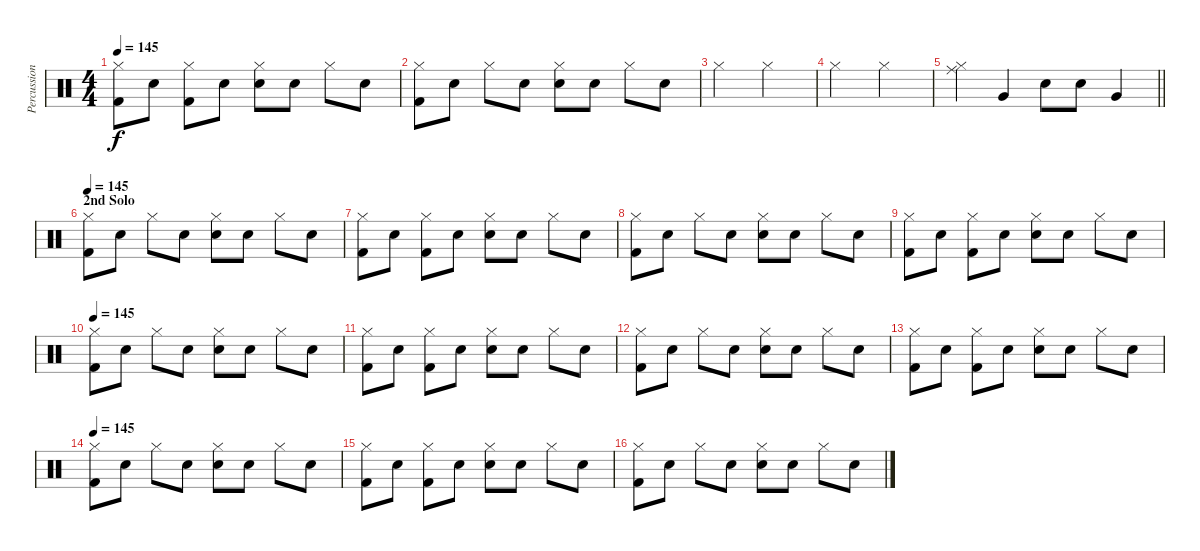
\track ("Percussion" "Percussion") {instrument percussion}
\staff {score}
\articulation defaults
\ts (4 4)
\tempo 145
\clef neutral
\ks c
("Hi-Hat (closed)" "Kick (hit) 2").8{dy f} "Snare (hit)"{x}.8 ("Hi-Hat (closed)" "Kick (hit) 2").8 "Snare (hit)"{x}.8 ("Hi-Hat (closed)" "Electric Snare (hit)").8 "Snare (hit)"{x}.8 "Hi-Hat (closed)".8 "Snare (hit)"{x}.8 |
("Hi-Hat (closed)" "Kick (hit) 2").8 "Snare (hit)"{x}.8 "Hi-Hat (closed)".8 "Snare (hit)"{x}.8 ("Hi-Hat (closed)" "Electric Snare (hit)").8 "Snare (hit)"{x}.8 "Hi-Hat (closed)".8 "Snare (hit)"{x}.8 |
"Hi-Hat (closed)".2 "Hi-Hat (closed)".2 |
"Hi-Hat (closed)".2 "Hi-Hat (closed)".2 |
\barLineRight lightlight
("Hi-Hat (closed)" "Ride (middle)").4 "Very Low Tom (hit)".4 "Electric Snare (hit)".8 "Electric Snare (hit)".8 "Very Low Tom (hit)".4 |
\section ("" "2nd Solo")
\tempo 145
("Hi-Hat (closed)" "Kick (hit) 2").8 "Snare (hit)"{x}.8 "Hi-Hat (closed)".8 "Snare (hit)"{x}.8 ("Hi-Hat (closed)" "Electric Snare (hit)").8 "Snare (hit)"{x}.8 "Hi-Hat (closed)".8 "Snare (hit)"{x}.8 |
("Hi-Hat (closed)" "Kick (hit) 2").8 "Snare (hit)"{x}.8 ("Hi-Hat (closed)" "Kick (hit) 2").8 "Snare (hit)"{x}.8 ("Hi-Hat (closed)" "Electric Snare (hit)").8 "Snare (hit)"{x}.8 "Hi-Hat (closed)".8 "Snare (hit)"{x}.8 |
("Hi-Hat (closed)" "Kick (hit) 2").8 "Snare (hit)"{x}.8 "Hi-Hat (closed)".8 "Snare (hit)"{x}.8 ("Hi-Hat (closed)" "Electric Snare (hit)").8 "Snare (hit)"{x}.8 "Hi-Hat (closed)".8 "Snare (hit)"{x}.8 |
("Hi-Hat (closed)" "Kick (hit) 2").8 "Snare (hit)"{x}.8 ("Hi-Hat (closed)" "Kick (hit) 2").8 "Snare (hit)"{x}.8 ("Hi-Hat (closed)" "Electric Snare (hit)").8 "Snare (hit)"{x}.8 "Hi-Hat (closed)".8 "Snare (hit)"{x}.8 |
\tempo 145
("Hi-Hat (closed)" "Kick (hit) 2").8 "Snare (hit)"{x}.8 "Hi-Hat (closed)".8 "Snare (hit)"{x}.8 ("Hi-Hat (closed)" "Electric Snare (hit)").8 "Snare (hit)"{x}.8 "Hi-Hat (closed)".8 "Snare (hit)"{x}.8 |
("Hi-Hat (closed)" "Kick (hit) 2").8 "Snare (hit)"{x}.8 ("Hi-Hat (closed)" "Kick (hit) 2").8 "Snare (hit)"{x}.8 ("Hi-Hat (closed)" "Electric Snare (hit)").8 "Snare (hit)"{x}.8 "Hi-Hat (closed)".8 "Snare (hit)"{x}.8 |
("Hi-Hat (closed)" "Kick (hit) 2").8 "Snare (hit)"{x}.8 "Hi-Hat (closed)".8 "Snare (hit)"{x}.8 ("Hi-Hat (closed)" "Electric Snare (hit)").8 "Snare (hit)"{x}.8 "Hi-Hat (closed)".8 "Snare (hit)"{x}.8 |
("Hi-Hat (closed)" "Kick (hit) 2").8 "Snare (hit)"{x}.8 ("Hi-Hat (closed)" "Kick (hit) 2").8 "Snare (hit)"{x}.8 ("Hi-Hat (closed)" "Electric Snare (hit)").8 "Snare (hit)"{x}.8 "Hi-Hat (closed)".8 "Snare (hit)"{x}.8 |
\tempo 145
("Hi-Hat (closed)" "Kick (hit) 2").8 "Snare (hit)"{x}.8 "Hi-Hat (closed)".8 "Snare (hit)"{x}.8 ("Hi-Hat (closed)" "Electric Snare (hit)").8 "Snare (hit)"{x}.8 "Hi-Hat (closed)".8 "Snare (hit)"{x}.8 |
("Hi-Hat (closed)" "Kick (hit) 2").8 "Snare (hit)"{x}.8 ("Hi-Hat (closed)" "Kick (hit) 2").8 "Snare (hit)"{x}.8 ("Hi-Hat (closed)" "Electric Snare (hit)").8 "Snare (hit)"{x}.8 "Hi-Hat (closed)".8 "Snare (hit)"{x}.8 |
("Hi-Hat (closed)" "Kick (hit) 2").8 "Snare (hit)"{x}.8 "Hi-Hat (closed)".8 "Snare (hit)"{x}.8 ("Hi-Hat (closed)" "Electric Snare (hit)").8 "Snare (hit)"{x}.8 "Hi-Hat (closed)".8 "Snare (hit)"{x}.8
